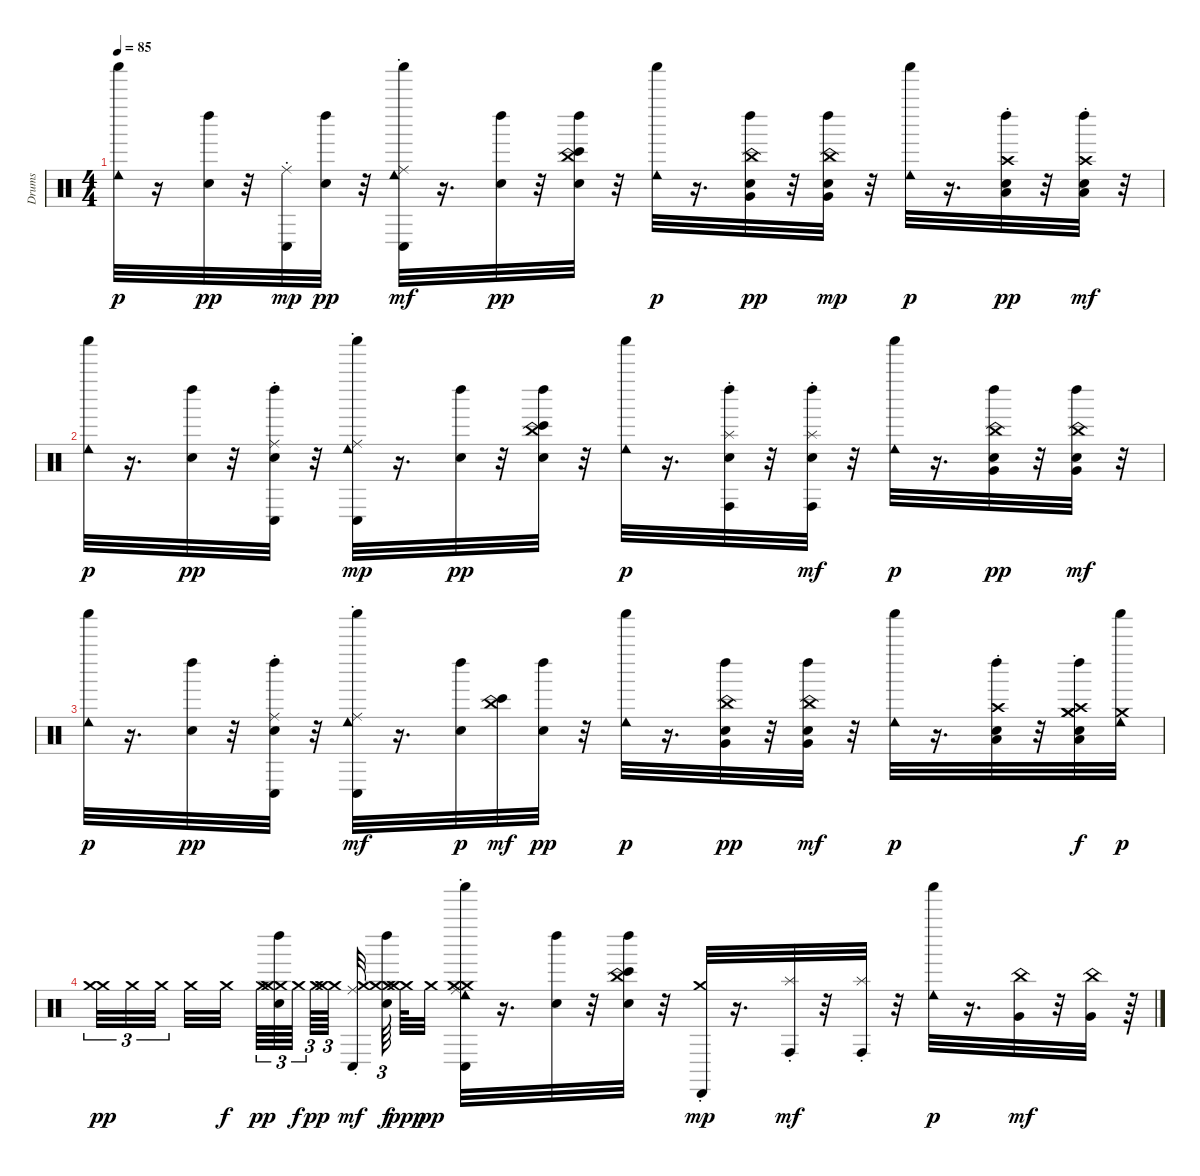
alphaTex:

\track ("Drums" "Drums") {instrument percussion}
\staff {score}
\articulation defaults
\ts (4 4)
\tempo 85
\clef neutral
\ks c
("Shaker (hit)" "Cowbell low (hit)").32{dy p} r.16 ("Snare (hit)" "Left Maraca (hit)").32{dy pp} r.32 ("Conga low (hit)" "Ride (choke)").32{dy mp} ("Left Maraca (hit)" "Snare (hit)").32{dy pp} r.32 ("Cowbell low (hit)" "Shaker (hit)" "Ride (choke)" "Conga low (hit)").32{dy mf} r.16{d} ("Left Maraca (hit)" "Snare (hit)").32{dy pp} r.32 ("Bongo High (hit)" "China (choke)" "Left Maraca (hit)" "Snare (hit)").32 r.32 ("Shaker (hit)" "Cowbell low (hit)").32{dy p} r.16{d} ("China (choke)" "Very Low Tom (hit)" "Left Maraca (hit)" "Snare (hit)").32{dy pp} r.32 ("Left Maraca (hit)" "Snare (hit)" "China (choke)" "Very Low Tom (hit)").32{dy mp} r.32 ("Shaker (hit)" "Cowbell low (hit)").32{dy p} r.16{d} ("Crash high (choke)" "Low Floor Tom (hit)" "Left Maraca (hit)" "Snare (hit)").32{dy pp} r.32 ("Left Maraca (hit)" "Snare (hit)" "Low Floor Tom (hit)" "Crash high (choke)").32{dy mf} r.32 |
("Shaker (hit)" "Cowbell low (hit)").32{dy p} r.16{d} ("Left Maraca (hit)" "Snare (hit)").32{dy pp} r.32 ("Conga low (hit)" "Ride (choke)" "Left Maraca (hit)" "Snare (hit)").32 r.32 ("Cowbell low (hit)" "Shaker (hit)" "Conga low (hit)" "Ride (choke)").32{dy mp} r.16{d} ("Left Maraca (hit)" "Snare (hit)").32{dy pp} r.32 ("Bongo High (hit)" "China (choke)" "Left Maraca (hit)" "Snare (hit)").32 r.32 ("Shaker (hit)" "Cowbell low (hit)").32{dy p} r.16{d} ("Conga high (hit)" "Splash (choke)" "Snare (hit)" "Left Maraca (hit)").32 r.32 ("Snare (hit)" "Left Maraca (hit)" "Splash (choke)" "Conga high (hit)").32{dy mf} r.32 ("Shaker (hit)" "Cowbell low (hit)").32{dy p} r.16{d} ("China (choke)" "Very Low Tom (hit)" "Left Maraca (hit)" "Snare (hit)").32{dy pp} r.32 ("Snare (hit)" "Left Maraca (hit)" "China (choke)" "Very Low Tom (hit)").32{dy mf} r.32 |
("Shaker (hit)" "Cowbell low (hit)").32{dy p} r.16{d} ("Snare (hit)" "Left Maraca (hit)").32{dy pp} r.32 ("Conga low (hit)" "Ride (choke)" "Snare (hit)" "Left Maraca (hit)").32 r.32 ("Shaker (hit)" "Cowbell low (hit)" "Ride (choke)" "Conga low (hit)").32{dy mf} r.16{d} ("Snare (hit)" "Left Maraca (hit)").32{dy p} ("China (choke)" "Bongo High (hit)").32{dy mf} ("Left Maraca (hit)" "Snare (hit)").32{dy pp} r.32 ("Shaker (hit)" "Cowbell low (hit)").32{dy p} r.16{d} ("China (choke)" "Very Low Tom (hit)" "Left Maraca (hit)" "Snare (hit)").32{dy pp} r.32 ("Left Maraca (hit)" "Snare (hit)" "China (choke)" "Very Low Tom (hit)").32{dy mf} r.32 ("Shaker (hit)" "Cowbell low (hit)").32{dy p} r.16{d} ("Crash high (choke)" "Low Floor Tom (hit)" "Left Maraca (hit)" "Snare (hit)").32 r.32 ("Left Maraca (hit)" "Crash medium (hit)" "Crash high (choke)" "Snare (hit)" "Low Floor Tom (hit)" "Crash medium (hit)").32{dy f} ("Crash medium (hit)" "Shaker (hit)" "Cowbell low (hit)").32{dy p} |
("Crash medium (hit)" "Crash medium (hit)").32{tu (3 2) dy pp} "Crash medium (hit)".32{tu (3 2)} "Crash medium (hit)".32{tu (3 2)} "Crash medium (hit)".32 "Crash medium (hit)".32{dy f} "Crash medium (hit)".64{tu (3 2) dy pp} ("Crash medium (hit)" "Left Maraca (hit)" "Snare (hit)" "Crash medium (hit)").64{tu (3 2)} "Crash medium (hit)".64{tu (3 2) dy f} "Crash medium (hit)".64{tu (3 2) dy pp} ("Crash medium (hit)" "Crash medium (hit)").64{tu (3 2)} ("Crash medium (hit)" "Conga low (hit)" "Ride (choke)").32{dy mf} ("Snare (hit)" "Left Maraca (hit)" "Crash medium (hit)" "Crash medium (hit)").64{tu (3 2) dy f} ("Crash medium (hit)" "Crash medium (hit)").64{dy ppp} "Crash medium (hit)".32{dy pp} ("Crash medium (hit)" "Shaker (hit)" "Cowbell low (hit)" "Conga low (hit)" "Ride (choke)" "Crash medium (hit)").32 r.16{d} ("Left Maraca (hit)" "Snare (hit)").32 r.32 ("Bongo High (hit)" "China (choke)" "Left Maraca (hit)" "Snare (hit)").32 r.32 ("Cabasa (hit)" "Crash medium (choke)").32{dy mp} r.16{d} ("Conga high (hit)" "Splash (choke)").32{dy mf} r.32 ("Splash (choke)" "Conga high (hit)").32 r.32 ("Shaker (hit)" "Cowbell low (hit)").32{dy p} r.16{d} ("China (choke)" "Very Low Tom (hit)").32{dy mf} r.32 ("China (choke)" "Very Low Tom (hit)").32 r.64
